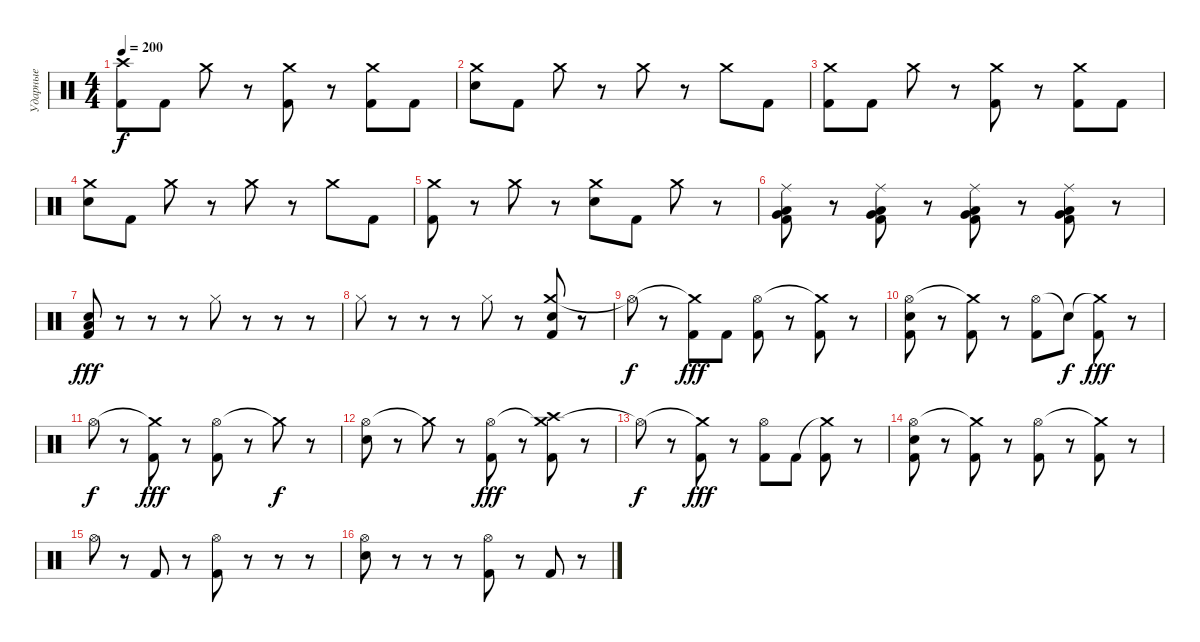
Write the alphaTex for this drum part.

\track ("Ударные" "Ударные") {instrument percussion}
\staff {score}
\articulation defaults
\ts (4 4)
\tempo 200
\clef neutral
\ks c
("Crash high (hit)" "Kick (hit) 2").8{dy f} "Kick (hit) 2".8 "Crash medium (hit)".8 r.8 ("Crash medium (hit)" "Kick (hit) 2").8 r.8 ("Crash medium (hit)" "Kick (hit) 2").8 "Kick (hit) 2".8 |
("Crash medium (hit)" "Electric Snare (hit)").8 "Kick (hit) 2".8 "Crash medium (hit)".8 r.8 "Crash medium (hit)".8 r.8 "Crash medium (hit)".8 "Kick (hit) 2".8 |
("Crash medium (hit)" "Kick (hit) 2").8 "Kick (hit) 2".8 "Crash medium (hit)".8 r.8 ("Crash medium (hit)" "Kick (hit) 2").8 r.8 ("Crash medium (hit)" "Kick (hit) 2").8 "Kick (hit) 2".8 |
("Crash medium (hit)" "Electric Snare (hit)").8 "Kick (hit) 2".8 "Crash medium (hit)".8 r.8 "Crash medium (hit)".8 r.8 "Crash medium (hit)".8 "Kick (hit) 2".8 |
("Crash medium (hit)" "Kick (hit) 2").8 r.8 "Crash medium (hit)".8 r.8 ("Crash medium (hit)" "Electric Snare (hit)").8 "Kick (hit) 2".8 "Crash medium (hit)".8 r.8 |
("Low Floor Tom (hit)" "Very Low Tom (hit)" "Kick (hit) 2" "Ride (middle)").8 r.8 ("Low Floor Tom (hit)" "Very Low Tom (hit)" "Kick (hit) 2" "Ride (middle)").8 r.8 ("Low Floor Tom (hit)" "Very Low Tom (hit)" "Kick (hit) 2" "Ride (middle)").8 r.8 ("Low Floor Tom (hit)" "Very Low Tom (hit)" "Kick (hit) 2" "Ride (middle)").8 r.8 |
("Electric Snare (hit)" "Low Floor Tom (hit)" "Kick (hit) 2").8{dy fff} r.8 r.8 r.8 "Hi-Hat (closed)".8 r.8 r.8 r.8 |
"Hi-Hat (closed)".8 r.8 r.8 r.8 "Hi-Hat (closed)".8 r.8 ("Crash medium (hit)" "Electric Snare (hit)" "Kick (hit) 2").8 r.8 |
"Hi-Hat (open)"{t}.8{dy f} r.8 ("Crash medium (hit)"{t} "Kick (hit) 2").8{dy fff} "Kick (hit) 2".8 ("Hi-Hat (open)" "Kick (hit) 2").8 r.8 ("Crash medium (hit)"{t} "Kick (hit) 2").8 r.8 |
("Hi-Hat (open)" "Electric Snare (hit)" "Kick (hit) 2").8 r.8 ("Crash medium (hit)"{t} "Kick (hit) 2").8 r.8 ("Hi-Hat (open)" "Kick (hit) 2").8 "Snare (hit)"{t}.8{dy f} ("Crash medium (hit)"{t} "Kick (hit) 2").8{dy fff} r.8 |
"Hi-Hat (open)".8{dy f} r.8 ("Crash medium (hit)"{t} "Kick (hit) 2").8{dy fff} r.8 ("Hi-Hat (open)" "Kick (hit) 2").8 r.8 "Crash medium (hit)"{t}.8{dy f} r.8 |
("Hi-Hat (open)" "Electric Snare (hit)").8 r.8 "Crash medium (hit)"{t}.8 r.8 ("Hi-Hat (open)" "Kick (hit) 2").8{dy fff} r.8 ("Crash medium (hit)"{t} "Crash high (hit)" "Kick (hit) 2").8 r.8 |
"Hi-Hat (open)"{t}.8{dy f} r.8 ("Crash medium (hit)"{t} "Kick (hit) 2").8{dy fff} r.8 ("Hi-Hat (open)" "Kick (hit) 2").8 "Kick (hit) 2".8 ("Crash medium (hit)"{t} "Kick (hit) 2").8 r.8 |
("Hi-Hat (open)" "Electric Snare (hit)" "Kick (hit) 2").8 r.8 ("Crash medium (hit)"{t} "Kick (hit) 2").8 r.8 ("Hi-Hat (open)" "Kick (hit) 2").8 r.8 ("Crash medium (hit)"{t} "Kick (hit) 2").8 r.8 |
"Hi-Hat (open)".8 r.8 "Kick (hit) 2".8 r.8 ("Hi-Hat (open)" "Kick (hit) 2").8 r.8 r.8 r.8 |
("Hi-Hat (open)" "Electric Snare (hit)").8 r.8 r.8 r.8 ("Hi-Hat (open)" "Kick (hit) 2").8 r.8 "Kick (hit) 2".8 r.8
